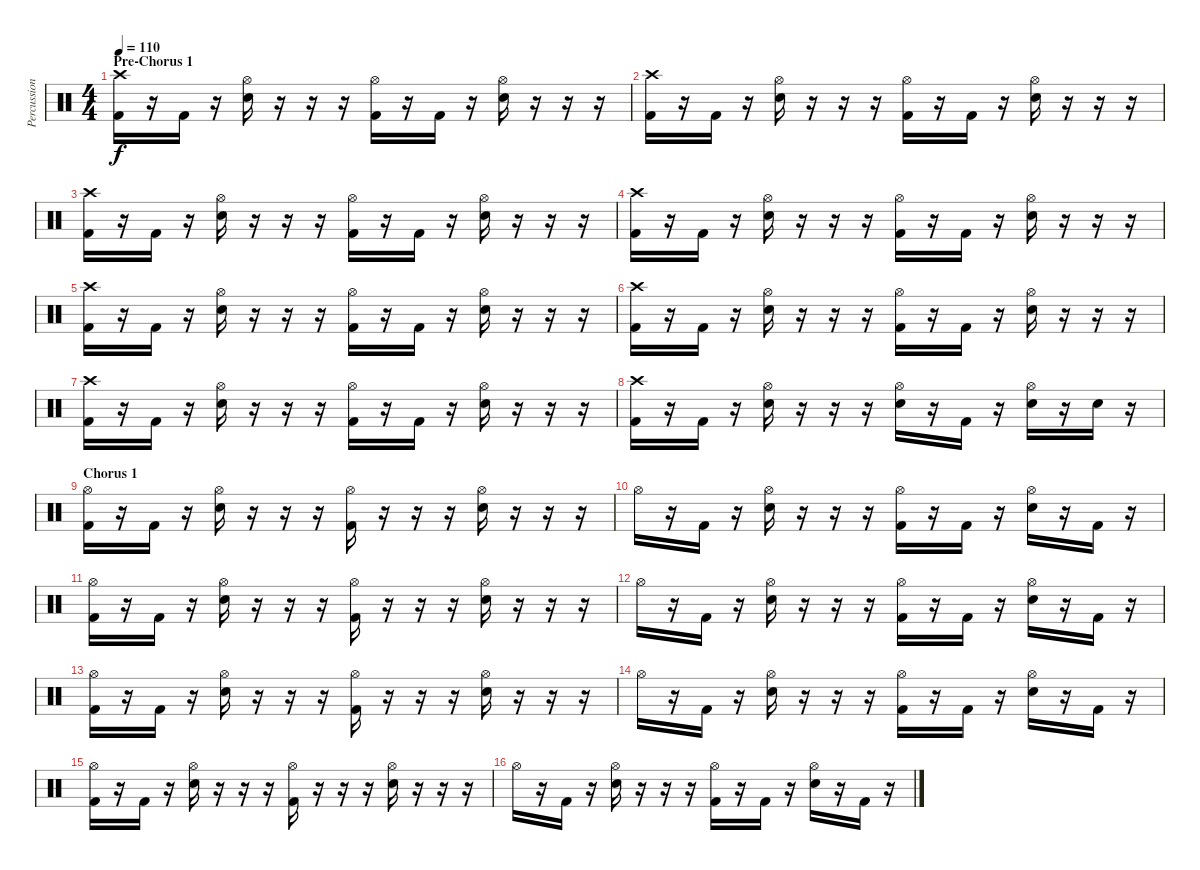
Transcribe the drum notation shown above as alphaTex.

\track ("Percussion" "Percussion") {instrument percussion}
\staff {score}
\articulation defaults
\ts (4 4)
\section ("" "Pre-Chorus 1")
\tempo 110
\clef neutral
\ks c
("Kick (hit) 2" "Crash high (hit)").16{dy f} r.16 "Kick (hit) 2".16 r.16 ("Snare (hit) 2" "Hi-Hat (open)").16 r.16 r.16 r.16 ("Kick (hit) 2" "Hi-Hat (open)").16 r.16 "Kick (hit) 2".16 r.16 ("Snare (hit) 2" "Hi-Hat (open)").16 r.16 r.16 r.16 |
("Kick (hit) 2" "Crash high (hit)").16 r.16 "Kick (hit) 2".16 r.16 ("Snare (hit) 2" "Hi-Hat (open)").16 r.16 r.16 r.16 ("Kick (hit) 2" "Hi-Hat (open)").16 r.16 "Kick (hit) 2".16 r.16 ("Snare (hit) 2" "Hi-Hat (open)").16 r.16 r.16 r.16 |
("Kick (hit) 2" "Crash high (hit)").16 r.16 "Kick (hit) 2".16 r.16 ("Snare (hit) 2" "Hi-Hat (open)").16 r.16 r.16 r.16 ("Kick (hit) 2" "Hi-Hat (open)").16 r.16 "Kick (hit) 2".16 r.16 ("Snare (hit) 2" "Hi-Hat (open)").16 r.16 r.16 r.16 |
("Kick (hit) 2" "Crash high (hit)").16 r.16 "Kick (hit) 2".16 r.16 ("Snare (hit) 2" "Hi-Hat (open)").16 r.16 r.16 r.16 ("Kick (hit) 2" "Hi-Hat (open)").16 r.16 "Kick (hit) 2".16 r.16 ("Snare (hit) 2" "Hi-Hat (open)").16 r.16 r.16 r.16 |
("Kick (hit) 2" "Crash high (hit)").16 r.16 "Kick (hit) 2".16 r.16 ("Snare (hit) 2" "Hi-Hat (open)").16 r.16 r.16 r.16 ("Kick (hit) 2" "Hi-Hat (open)").16 r.16 "Kick (hit) 2".16 r.16 ("Snare (hit) 2" "Hi-Hat (open)").16 r.16 r.16 r.16 |
("Kick (hit) 2" "Crash high (hit)").16 r.16 "Kick (hit) 2".16 r.16 ("Snare (hit) 2" "Hi-Hat (open)").16 r.16 r.16 r.16 ("Kick (hit) 2" "Hi-Hat (open)").16 r.16 "Kick (hit) 2".16 r.16 ("Snare (hit) 2" "Hi-Hat (open)").16 r.16 r.16 r.16 |
("Kick (hit) 2" "Crash high (hit)").16 r.16 "Kick (hit) 2".16 r.16 ("Snare (hit) 2" "Hi-Hat (open)").16 r.16 r.16 r.16 ("Kick (hit) 2" "Hi-Hat (open)").16 r.16 "Kick (hit) 2".16 r.16 ("Snare (hit) 2" "Hi-Hat (open)").16 r.16 r.16 r.16 |
("Kick (hit) 2" "Crash high (hit)").16 r.16 "Kick (hit) 2".16 r.16 ("Snare (hit) 2" "Hi-Hat (open)").16 r.16 r.16 r.16 ("Snare (hit) 2" "Hi-Hat (open)").16 r.16 "Kick (hit) 2".16 r.16 ("Snare (hit) 2" "Hi-Hat (open)").16 r.16 "Snare (hit) 2".16 r.16 |
\section ("" "Chorus 1")
("Kick (hit) 2" "Hi-Hat (open)").16 r.16 "Kick (hit) 2".16 r.16 ("Snare (hit) 2" "Hi-Hat (open)").16 r.16 r.16 r.16 ("Kick (hit) 2" "Hi-Hat (open)").16 r.16 r.16 r.16 ("Snare (hit) 2" "Hi-Hat (open)").16 r.16 r.16 r.16 |
"Hi-Hat (open)".16 r.16 "Kick (hit) 2".16 r.16 ("Snare (hit) 2" "Hi-Hat (open)").16 r.16 r.16 r.16 ("Kick (hit) 2" "Hi-Hat (open)").16 r.16 "Kick (hit) 2".16 r.16 ("Snare (hit) 2" "Hi-Hat (open)").16 r.16 "Kick (hit) 2".16 r.16 |
("Kick (hit) 2" "Hi-Hat (open)").16 r.16 "Kick (hit) 2".16 r.16 ("Snare (hit) 2" "Hi-Hat (open)").16 r.16 r.16 r.16 ("Kick (hit) 2" "Hi-Hat (open)").16 r.16 r.16 r.16 ("Snare (hit) 2" "Hi-Hat (open)").16 r.16 r.16 r.16 |
"Hi-Hat (open)".16 r.16 "Kick (hit) 2".16 r.16 ("Snare (hit) 2" "Hi-Hat (open)").16 r.16 r.16 r.16 ("Kick (hit) 2" "Hi-Hat (open)").16 r.16 "Kick (hit) 2".16 r.16 ("Snare (hit) 2" "Hi-Hat (open)").16 r.16 "Kick (hit) 2".16 r.16 |
("Kick (hit) 2" "Hi-Hat (open)").16 r.16 "Kick (hit) 2".16 r.16 ("Snare (hit) 2" "Hi-Hat (open)").16 r.16 r.16 r.16 ("Kick (hit) 2" "Hi-Hat (open)").16 r.16 r.16 r.16 ("Snare (hit) 2" "Hi-Hat (open)").16 r.16 r.16 r.16 |
"Hi-Hat (open)".16 r.16 "Kick (hit) 2".16 r.16 ("Snare (hit) 2" "Hi-Hat (open)").16 r.16 r.16 r.16 ("Kick (hit) 2" "Hi-Hat (open)").16 r.16 "Kick (hit) 2".16 r.16 ("Snare (hit) 2" "Hi-Hat (open)").16 r.16 "Kick (hit) 2".16 r.16 |
("Kick (hit) 2" "Hi-Hat (open)").16 r.16 "Kick (hit) 2".16 r.16 ("Snare (hit) 2" "Hi-Hat (open)").16 r.16 r.16 r.16 ("Kick (hit) 2" "Hi-Hat (open)").16 r.16 r.16 r.16 ("Snare (hit) 2" "Hi-Hat (open)").16 r.16 r.16 r.16 |
"Hi-Hat (open)".16 r.16 "Kick (hit) 2".16 r.16 ("Snare (hit) 2" "Hi-Hat (open)").16 r.16 r.16 r.16 ("Kick (hit) 2" "Hi-Hat (open)").16 r.16 "Kick (hit) 2".16 r.16 ("Snare (hit) 2" "Hi-Hat (open)").16 r.16 "Kick (hit) 2".16 r.16
